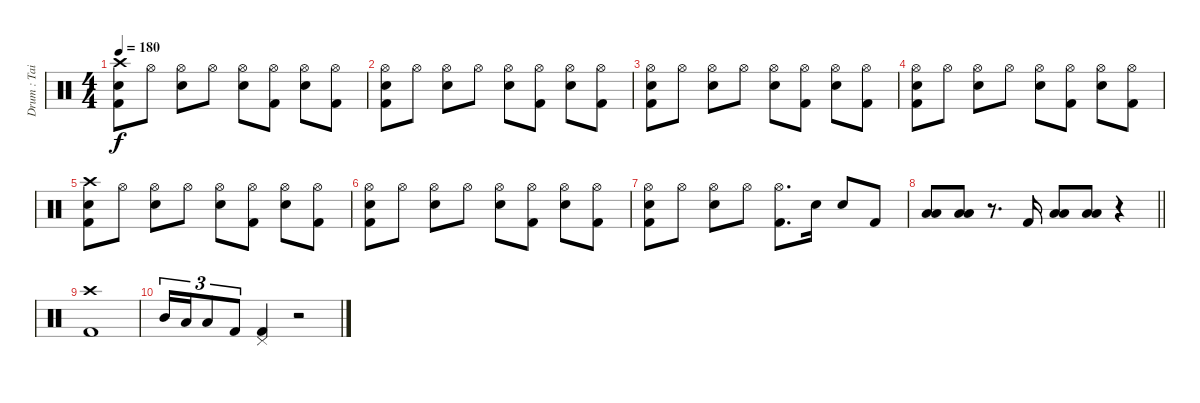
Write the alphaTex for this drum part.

\track ("Drum : Tainaka Ritsu - Chan" "Drum : Tai") {instrument percussion}
\staff {score}
\articulation defaults
\ts (4 4)
\tempo 180
\clef neutral
\ks c
("Crash high (hit)" "Electric Snare (hit)" "Kick (hit) 2").8{dy f} "Hi-Hat (open)".8 ("Hi-Hat (open)" "Electric Snare (hit)").8 "Hi-Hat (open)".8 ("Hi-Hat (open)" "Electric Snare (hit)").8 ("Hi-Hat (open)" "Kick (hit) 2").8 ("Hi-Hat (open)" "Electric Snare (hit)").8 ("Hi-Hat (open)" "Kick (hit) 2").8 |
("Hi-Hat (open)" "Electric Snare (hit)" "Kick (hit) 2").8 "Hi-Hat (open)".8 ("Hi-Hat (open)" "Electric Snare (hit)").8 "Hi-Hat (open)".8 ("Hi-Hat (open)" "Electric Snare (hit)").8 ("Hi-Hat (open)" "Kick (hit) 2").8 ("Hi-Hat (open)" "Electric Snare (hit)").8 ("Hi-Hat (open)" "Kick (hit) 2").8 |
("Hi-Hat (open)" "Electric Snare (hit)" "Kick (hit) 2").8 "Hi-Hat (open)".8 ("Hi-Hat (open)" "Electric Snare (hit)").8 "Hi-Hat (open)".8 ("Hi-Hat (open)" "Electric Snare (hit)").8 ("Hi-Hat (open)" "Kick (hit) 2").8 ("Hi-Hat (open)" "Electric Snare (hit)").8 ("Hi-Hat (open)" "Kick (hit) 2").8 |
("Hi-Hat (open)" "Electric Snare (hit)" "Kick (hit) 2").8 "Hi-Hat (open)".8 ("Hi-Hat (open)" "Electric Snare (hit)").8 "Hi-Hat (open)".8 ("Hi-Hat (open)" "Electric Snare (hit)").8 ("Hi-Hat (open)" "Kick (hit) 2").8 ("Hi-Hat (open)" "Electric Snare (hit)").8 ("Hi-Hat (open)" "Kick (hit) 2").8 |
("Crash high (hit)" "Electric Snare (hit)" "Kick (hit) 2").8 "Hi-Hat (open)".8 ("Hi-Hat (open)" "Electric Snare (hit)").8 "Hi-Hat (open)".8 ("Hi-Hat (open)" "Electric Snare (hit)").8 ("Hi-Hat (open)" "Kick (hit) 2").8 ("Hi-Hat (open)" "Electric Snare (hit)").8 ("Hi-Hat (open)" "Kick (hit) 2").8 |
("Hi-Hat (open)" "Electric Snare (hit)" "Kick (hit) 2").8 "Hi-Hat (open)".8 ("Hi-Hat (open)" "Electric Snare (hit)").8 "Hi-Hat (open)".8 ("Hi-Hat (open)" "Electric Snare (hit)").8 ("Hi-Hat (open)" "Kick (hit) 2").8 ("Hi-Hat (open)" "Electric Snare (hit)").8 ("Hi-Hat (open)" "Kick (hit) 2").8 |
("Hi-Hat (open)" "Electric Snare (hit)" "Kick (hit) 2").8 "Hi-Hat (open)".8 ("Hi-Hat (open)" "Electric Snare (hit)").8 "Hi-Hat (open)".8 ("Hi-Hat (open)" "Kick (hit) 2").8{d} "Electric Snare (hit)".16 "Electric Snare (hit)".8 "Kick (hit) 2".8 |
\barLineRight lightlight
("Low Tom (hit)" "Low Floor Tom (hit)").8 ("Low Tom (hit)" "Low Floor Tom (hit)").8 r.8{d} "Kick (hit) 2".16 ("Low Tom (hit)" "Low Floor Tom (hit)").8 ("Low Tom (hit)" "Low Floor Tom (hit)").8 r.4 |
("Crash high (hit)" "Kick (hit) 2").1 |
"Mid Tom (hit)".16{tu (3 2)} "Low Tom (hit)".16{tu (3 2)} "Low Floor Tom (hit)".8{tu (3 2)} "Kick (hit) 2".8{tu (3 2)} ("Pedal Hi-Hat (hit)" "Kick (hit) 2").4 r.2
